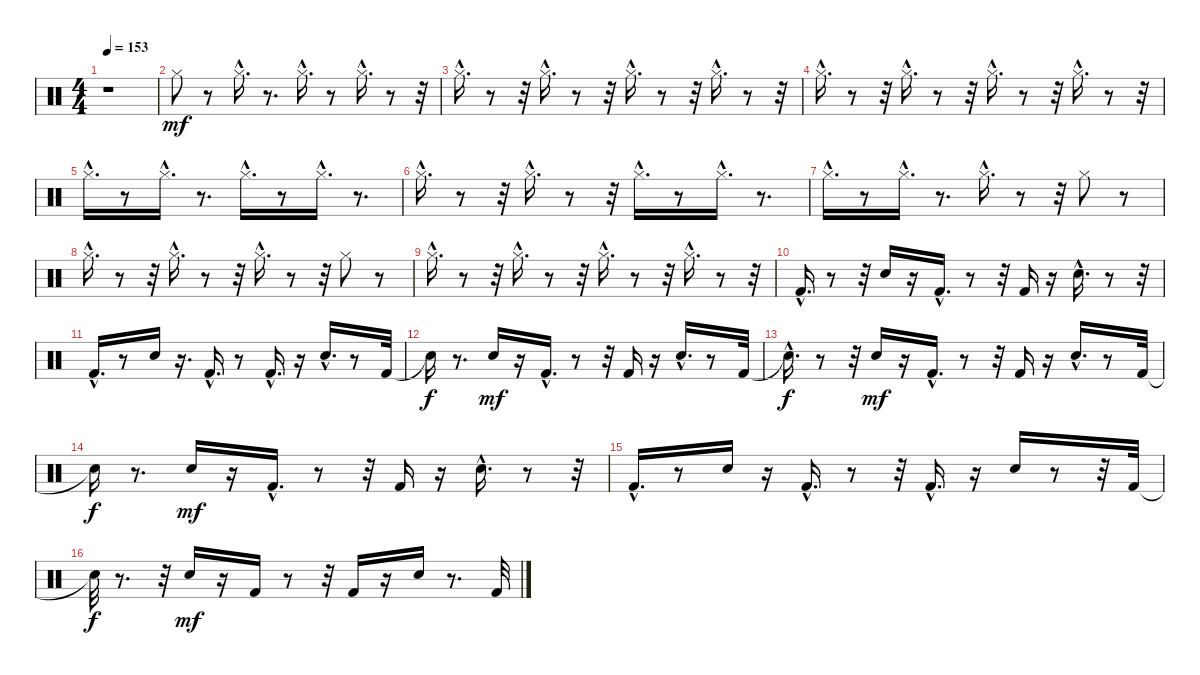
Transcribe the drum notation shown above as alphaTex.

\track "" {instrument percussion}
\staff {score}
\articulation defaults
\ts (4 4)
\tempo 153
\clef neutral
\ks c
r.1{dy mf} |
"Hi-Hat (closed)".8 r.8 "Hi-Hat (closed)"{hac}.16{d} r.8{d} "Hi-Hat (closed)"{hac}.16{d} r.8 "Hi-Hat (closed)"{hac}.16{d} r.8 r.32 |
"Hi-Hat (closed)"{hac}.16{d} r.8 r.32 "Hi-Hat (closed)"{hac}.16{d} r.8 r.32 "Hi-Hat (closed)"{hac}.16{d} r.8 r.32 "Hi-Hat (closed)"{hac}.16{d} r.8 r.32 |
"Hi-Hat (closed)"{hac}.16{d} r.8 r.32 "Hi-Hat (closed)"{hac}.16{d} r.8 r.32 "Hi-Hat (closed)"{hac}.16{d} r.8 r.32 "Hi-Hat (closed)"{hac}.16{d} r.8 r.32 |
"Hi-Hat (closed)"{hac}.16{d} r.8 "Hi-Hat (closed)"{hac}.16{d} r.8{d} "Hi-Hat (closed)"{hac}.16{d} r.8 "Hi-Hat (closed)"{hac}.16{d} r.8{d} |
"Hi-Hat (closed)"{hac}.16{d} r.8 r.32 "Hi-Hat (closed)"{hac}.16{d} r.8 r.32 "Hi-Hat (closed)"{hac}.16{d} r.8 "Hi-Hat (closed)"{hac}.16{d} r.8{d} |
"Hi-Hat (closed)"{hac}.16{d} r.8 "Hi-Hat (closed)"{hac}.16{d} r.8{d} "Hi-Hat (closed)"{hac}.16{d} r.8 r.32 "Hi-Hat (closed)".8 r.8 |
"Hi-Hat (closed)"{hac}.16{d} r.8 r.32 "Hi-Hat (closed)"{hac}.16{d} r.8 r.32 "Hi-Hat (closed)"{hac}.16{d} r.8 r.32 "Hi-Hat (closed)".8 r.8 |
"Hi-Hat (closed)"{hac}.16{d} r.8 r.32 "Hi-Hat (closed)"{hac}.16{d} r.8 r.32 "Hi-Hat (closed)"{hac}.16{d} r.8 r.32 "Hi-Hat (closed)"{hac}.16{d} r.8 r.32 |
"Kick (hit) 2"{hac}.16{d} r.8 r.32 "Snare (hit) 2".16 r.16 "Kick (hit) 2"{hac}.16{d} r.8 r.32 "Kick (hit) 2".16 r.16 "Snare (hit) 2"{hac}.16{d} r.8 r.32 |
"Kick (hit) 2"{hac}.16{d} r.8 "Snare (hit) 2".16 r.16{d} "Kick (hit) 2"{hac}.16{d} r.8 "Kick (hit) 2"{hac}.16{d} r.16 "Snare (hit) 2"{hac}.16{d} r.8 "Kick (hit) 2".32 |
"Snare (hit)"{t}.16{dy f} r.8{d} "Snare (hit) 2".16{dy mf} r.16 "Kick (hit) 2"{hac}.16{d} r.8 r.32 "Kick (hit) 2".16 r.16 "Snare (hit) 2"{hac}.16{d} r.8 "Kick (hit) 2".32 |
"Snare (hit)"{hac t}.16{d dy f} r.8 r.32 "Snare (hit) 2".16{dy mf} r.16 "Kick (hit) 2"{hac}.16{d} r.8 r.32 "Kick (hit) 2".16 r.16 "Snare (hit) 2"{hac}.16{d} r.8 "Kick (hit) 2".32 |
"Snare (hit)"{t}.16{dy f} r.8{d} "Snare (hit) 2".16{dy mf} r.16 "Kick (hit) 2"{hac}.16{d} r.8 r.32 "Kick (hit) 2".16 r.16 "Snare (hit) 2"{hac}.16{d} r.8 r.32 |
"Kick (hit) 2"{hac}.16{d} r.8 "Snare (hit) 2".16 r.16 "Kick (hit) 2"{hac}.16{d} r.8 r.32 "Kick (hit) 2"{hac}.16{d} r.16 "Snare (hit) 2".16 r.8 r.32 "Kick (hit) 2".32 |
"Snare (hit)"{t}.32{dy f} r.8{d} r.32 "Snare (hit) 2".16{dy mf} r.16 "Kick (hit) 2".16 r.8 r.32 "Kick (hit) 2".16 r.16 "Snare (hit) 2".16 r.8{d} "Kick (hit) 2".32
